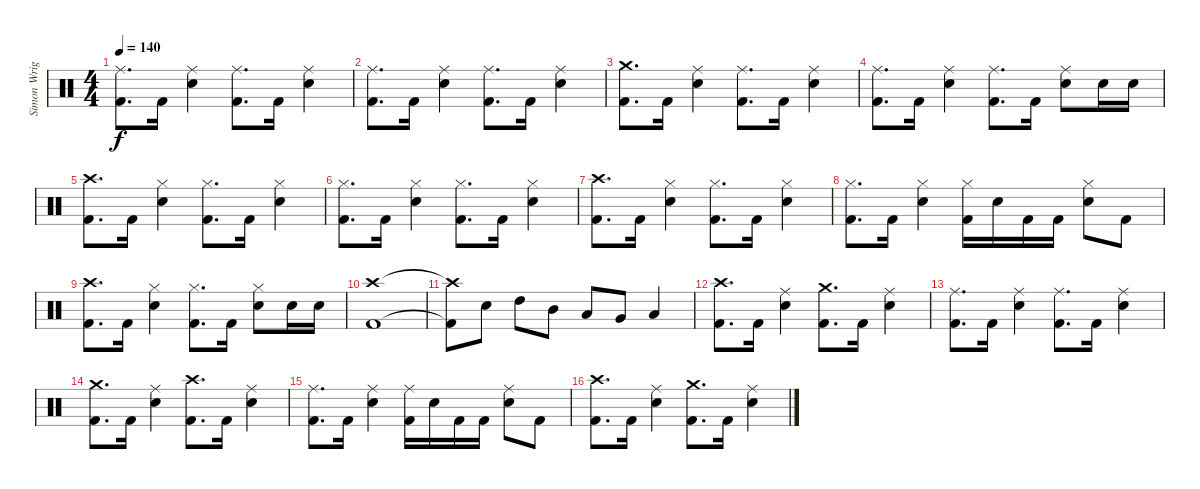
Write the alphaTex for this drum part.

\track ("Simon Wright" "Simon Wrig") {instrument percussion}
\staff {score}
\articulation defaults
\ts (4 4)
\tempo 140
\clef neutral
\ks c
("Ride (middle)" "Kick (hit) 2").8{d dy f} "Kick (hit) 2".16 ("Ride (middle)" "Snare (hit) 2").4 ("Ride (middle)" "Kick (hit) 2").8{d} "Kick (hit) 2".16 ("Ride (middle)" "Snare (hit) 2").4 |
("Ride (middle)" "Kick (hit) 2").8{d} "Kick (hit) 2".16 ("Ride (middle)" "Snare (hit) 2").4 ("Ride (middle)" "Kick (hit) 2").8{d} "Kick (hit) 2".16 ("Ride (middle)" "Snare (hit) 2").4 |
("Crash medium (hit)" "Kick (hit) 2").8{d} "Kick (hit) 2".16 ("Ride (middle)" "Snare (hit) 2").4 ("Ride (middle)" "Kick (hit) 2").8{d} "Kick (hit) 2".16 ("Ride (middle)" "Snare (hit) 2").4 |
("Ride (middle)" "Kick (hit) 2").8{d} "Kick (hit) 2".16 ("Ride (middle)" "Snare (hit) 2").4 ("Ride (middle)" "Kick (hit) 2").8{d} "Kick (hit) 2".16 ("Ride (middle)" "Snare (hit) 2").8 "Snare (hit) 2".16 "Snare (hit) 2".16 |
("Crash high (hit)" "Kick (hit) 2").8{d} "Kick (hit) 2".16 ("Hi-Hat (closed)" "Snare (hit) 2").4 ("Hi-Hat (closed)" "Kick (hit) 2").8{d} "Kick (hit) 2".16 ("Hi-Hat (closed)" "Snare (hit) 2").4 |
("Hi-Hat (closed)" "Kick (hit) 2").8{d} "Kick (hit) 2".16 ("Hi-Hat (closed)" "Snare (hit) 2").4 ("Hi-Hat (closed)" "Kick (hit) 2").8{d} "Kick (hit) 2".16 ("Hi-Hat (closed)" "Snare (hit) 2").4 |
("Crash high (hit)" "Kick (hit) 2").8{d} "Kick (hit) 2".16 ("Hi-Hat (closed)" "Snare (hit) 2").4 ("Hi-Hat (closed)" "Kick (hit) 2").8{d} "Kick (hit) 2".16 ("Hi-Hat (closed)" "Snare (hit) 2").4 |
("Hi-Hat (closed)" "Kick (hit) 2").8{d} "Kick (hit) 2".16 ("Hi-Hat (closed)" "Snare (hit) 2").4 ("Hi-Hat (closed)" "Kick (hit) 2").16 "Snare (hit) 2".16 "Kick (hit) 2".16 "Kick (hit) 2".16 ("Hi-Hat (closed)" "Snare (hit) 2").8 "Kick (hit) 2".8 |
("Crash high (hit)" "Kick (hit) 2").8{d} "Kick (hit) 2".16 ("Hi-Hat (closed)" "Snare (hit) 2").4 ("Hi-Hat (closed)" "Kick (hit) 2").8{d} "Kick (hit) 2".16 ("Hi-Hat (closed)" "Snare (hit) 2").8 "Snare (hit) 2".16 "Snare (hit) 2".16 |
("Crash high (hit)" "Kick (hit) 2").1 |
("Crash high (hit)"{t} "Kick (hit) 2"{t}).8 "Snare (hit) 2".8 "High Tom (hit)".8 "Mid Tom (hit)".8 "Low Tom (hit)".8 "Very Low Tom (hit)".8 "Low Floor Tom (hit)".4 |
("Crash high (hit)" "Kick (hit) 2").8{d} "Kick (hit) 2".16 ("Ride (middle)" "Snare (hit) 2").4 ("Crash medium (hit)" "Kick (hit) 2").8{d} "Kick (hit) 2".16 ("Ride (middle)" "Snare (hit) 2").4 |
("Ride (middle)" "Kick (hit) 2").8{d} "Kick (hit) 2".16 ("Ride (middle)" "Snare (hit) 2").4 ("Ride (middle)" "Kick (hit) 2").8{d} "Kick (hit) 2".16 ("Ride (middle)" "Snare (hit) 2").4 |
("Crash medium (hit)" "Kick (hit) 2").8{d} "Kick (hit) 2".16 ("Ride (middle)" "Snare (hit) 2").4 ("Crash high (hit)" "Kick (hit) 2").8{d} "Kick (hit) 2".16 ("Ride (middle)" "Snare (hit) 2").4 |
("Ride (middle)" "Kick (hit) 2").8{d} "Kick (hit) 2".16 ("Ride (middle)" "Snare (hit) 2").4 ("Ride (middle)" "Kick (hit) 2").16 "Snare (hit) 2".16 "Kick (hit) 2".16 "Kick (hit) 2".16 ("Ride (middle)" "Snare (hit) 2").8 "Kick (hit) 2".8 |
("Crash high (hit)" "Kick (hit) 2").8{d} "Kick (hit) 2".16 ("Ride (middle)" "Snare (hit) 2").4 ("Crash medium (hit)" "Kick (hit) 2").8{d} "Kick (hit) 2".16 ("Ride (middle)" "Snare (hit) 2").4
